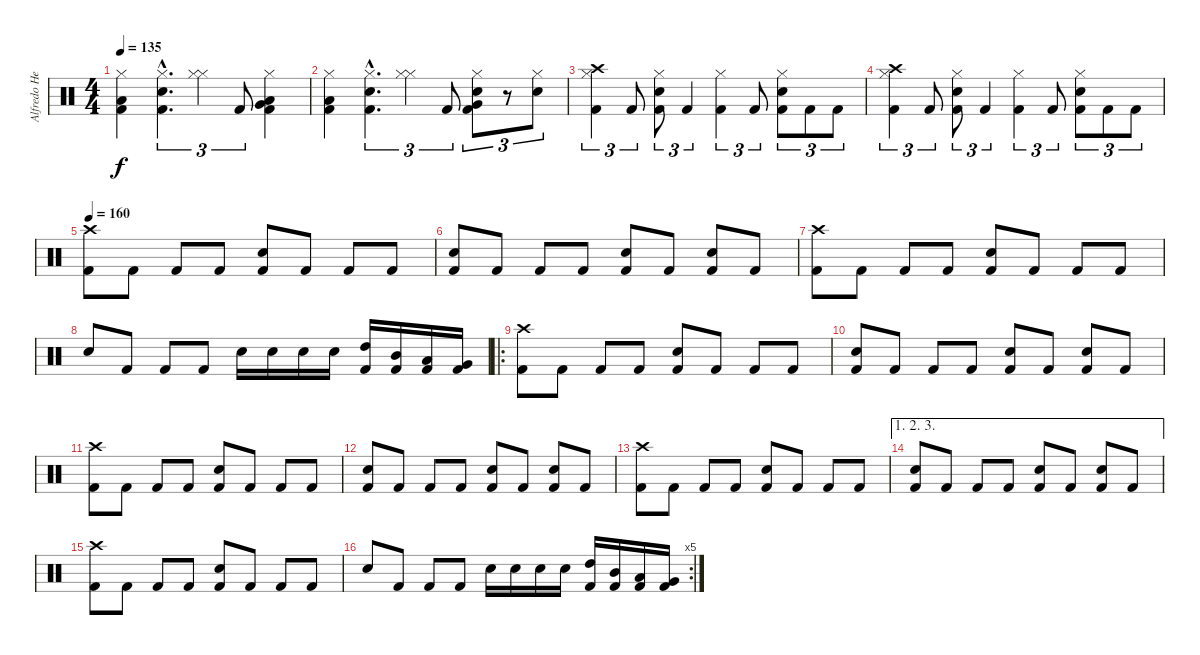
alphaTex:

\track ("Alfredo Hernandez" "Alfredo He") {instrument percussion}
\staff {score}
\articulation defaults
\ts (4 4)
\tempo 135
\clef neutral
\ks c
("Hi-Hat (closed)" "Low Floor Tom (hit)" "Kick (hit) 2").4{dy f} ("Electric Snare (hit)"{hac} "Hi-Hat (closed)"{hac} "Kick (hit) 2"{hac}).4{d tu (3 2)} ("Hi-Hat (closed)" "Hi-Hat (closed)").4{tu (3 2)} "Kick (hit) 2".8{tu (3 2)} ("Hi-Hat (closed)" "Very Low Tom (hit)" "Low Floor Tom (hit)" "Kick (hit) 2").4 |
("Hi-Hat (closed)" "Low Floor Tom (hit)" "Kick (hit) 2").4{volume 16} ("Electric Snare (hit)"{hac} "Hi-Hat (closed)"{hac} "Kick (hit) 2"{hac}).4{d tu (3 2)} ("Hi-Hat (closed)" "Hi-Hat (closed)").4{tu (3 2)} "Kick (hit) 2".8{tu (3 2)} ("Hi-Hat (closed)" "Very Low Tom (hit)" "Electric Snare (hit)" "Kick (hit) 2").8{tu (3 2)} r.8{tu (3 2)} ("Hi-Hat (closed)" "Electric Snare (hit)").8{tu (3 2)} |
("Crash high (hit)" "Hi-Hat (closed)" "Kick (hit) 2").4{tu (3 2)} "Kick (hit) 2".8{tu (3 2)} ("Electric Snare (hit)" "Hi-Hat (closed)" "Kick (hit) 2").8{tu (3 2)} "Kick (hit) 2".4{tu (3 2)} ("Hi-Hat (closed)" "Kick (hit) 2").4{tu (3 2)} "Kick (hit) 2".8{tu (3 2)} ("Electric Snare (hit)" "Hi-Hat (closed)" "Kick (hit) 2").8{tu (3 2)} "Kick (hit) 2".8{tu (3 2)} "Kick (hit) 2".8{tu (3 2)} |
("Crash high (hit)" "Hi-Hat (closed)" "Kick (hit) 2").4{tu (3 2)} "Kick (hit) 2".8{tu (3 2)} ("Electric Snare (hit)" "Hi-Hat (closed)" "Kick (hit) 2").8{tu (3 2)} "Kick (hit) 2".4{tu (3 2)} ("Hi-Hat (closed)" "Kick (hit) 2").4{tu (3 2)} "Kick (hit) 2".8{tu (3 2)} ("Electric Snare (hit)" "Hi-Hat (closed)" "Kick (hit) 2").8{tu (3 2)} "Kick (hit) 2".8{tu (3 2)} "Kick (hit) 2".8{tu (3 2)} |
\tempo 160
("Crash high (hit)" "Kick (hit) 2").8 "Kick (hit) 2".8 "Kick (hit) 2".8 "Kick (hit) 2".8 ("Electric Snare (hit)" "Kick (hit) 2").8 "Kick (hit) 2".8 "Kick (hit) 2".8 "Kick (hit) 2".8 |
("Electric Snare (hit)" "Kick (hit) 2").8 "Kick (hit) 2".8 "Kick (hit) 2".8 "Kick (hit) 2".8 ("Electric Snare (hit)" "Kick (hit) 2").8 "Kick (hit) 2".8 ("Electric Snare (hit)" "Kick (hit) 2").8 "Kick (hit) 2".8 |
("Crash high (hit)" "Kick (hit) 2").8 "Kick (hit) 2".8 "Kick (hit) 2".8 "Kick (hit) 2".8 ("Electric Snare (hit)" "Kick (hit) 2").8 "Kick (hit) 2".8 "Kick (hit) 2".8 "Kick (hit) 2".8 |
"Electric Snare (hit)".8 "Kick (hit) 2".8 "Kick (hit) 2".8 "Kick (hit) 2".8 "Electric Snare (hit)".16 "Electric Snare (hit)".16 "Electric Snare (hit)".16 "Electric Snare (hit)".16 ("High Tom (hit)" "Kick (hit) 2").16 ("Mid Tom (hit)" "Kick (hit) 2").16 ("Low Tom (hit)" "Kick (hit) 2").16 ("Very Low Tom (hit)" "Kick (hit) 2").16 |
\ro
("Crash high (hit)" "Kick (hit) 2").8 "Kick (hit) 2".8 "Kick (hit) 2".8 "Kick (hit) 2".8 ("Electric Snare (hit)" "Kick (hit) 2").8 "Kick (hit) 2".8 "Kick (hit) 2".8 "Kick (hit) 2".8 |
("Electric Snare (hit)" "Kick (hit) 2").8 "Kick (hit) 2".8 "Kick (hit) 2".8 "Kick (hit) 2".8 ("Electric Snare (hit)" "Kick (hit) 2").8 "Kick (hit) 2".8 ("Electric Snare (hit)" "Kick (hit) 2").8 "Kick (hit) 2".8 |
("Crash high (hit)" "Kick (hit) 2").8 "Kick (hit) 2".8 "Kick (hit) 2".8 "Kick (hit) 2".8 ("Electric Snare (hit)" "Kick (hit) 2").8 "Kick (hit) 2".8 "Kick (hit) 2".8 "Kick (hit) 2".8 |
("Electric Snare (hit)" "Kick (hit) 2").8 "Kick (hit) 2".8 "Kick (hit) 2".8 "Kick (hit) 2".8 ("Electric Snare (hit)" "Kick (hit) 2").8 "Kick (hit) 2".8 ("Electric Snare (hit)" "Kick (hit) 2").8 "Kick (hit) 2".8 |
("Crash high (hit)" "Kick (hit) 2").8 "Kick (hit) 2".8 "Kick (hit) 2".8 "Kick (hit) 2".8 ("Electric Snare (hit)" "Kick (hit) 2").8 "Kick (hit) 2".8 "Kick (hit) 2".8 "Kick (hit) 2".8 |
\ae (1 2 3)
("Electric Snare (hit)" "Kick (hit) 2").8 "Kick (hit) 2".8 "Kick (hit) 2".8 "Kick (hit) 2".8 ("Electric Snare (hit)" "Kick (hit) 2").8 "Kick (hit) 2".8 ("Electric Snare (hit)" "Kick (hit) 2").8 "Kick (hit) 2".8 |
("Crash high (hit)" "Kick (hit) 2").8 "Kick (hit) 2".8 "Kick (hit) 2".8 "Kick (hit) 2".8 ("Electric Snare (hit)" "Kick (hit) 2").8 "Kick (hit) 2".8 "Kick (hit) 2".8 "Kick (hit) 2".8 |
\rc 5 "Electric Snare (hit)".8 "Kick (hit) 2".8 "Kick (hit) 2".8 "Kick (hit) 2".8 "Electric Snare (hit)".16 "Electric Snare (hit)".16 "Electric Snare (hit)".16 "Electric Snare (hit)".16
("High Tom (hit)" "Kick (hit) 2").16 ("Mid Tom (hit)" "Kick (hit) 2").16 ("Low Tom (hit)" "Kick (hit) 2").16 ("Very Low Tom (hit)" "Kick (hit) 2").16
